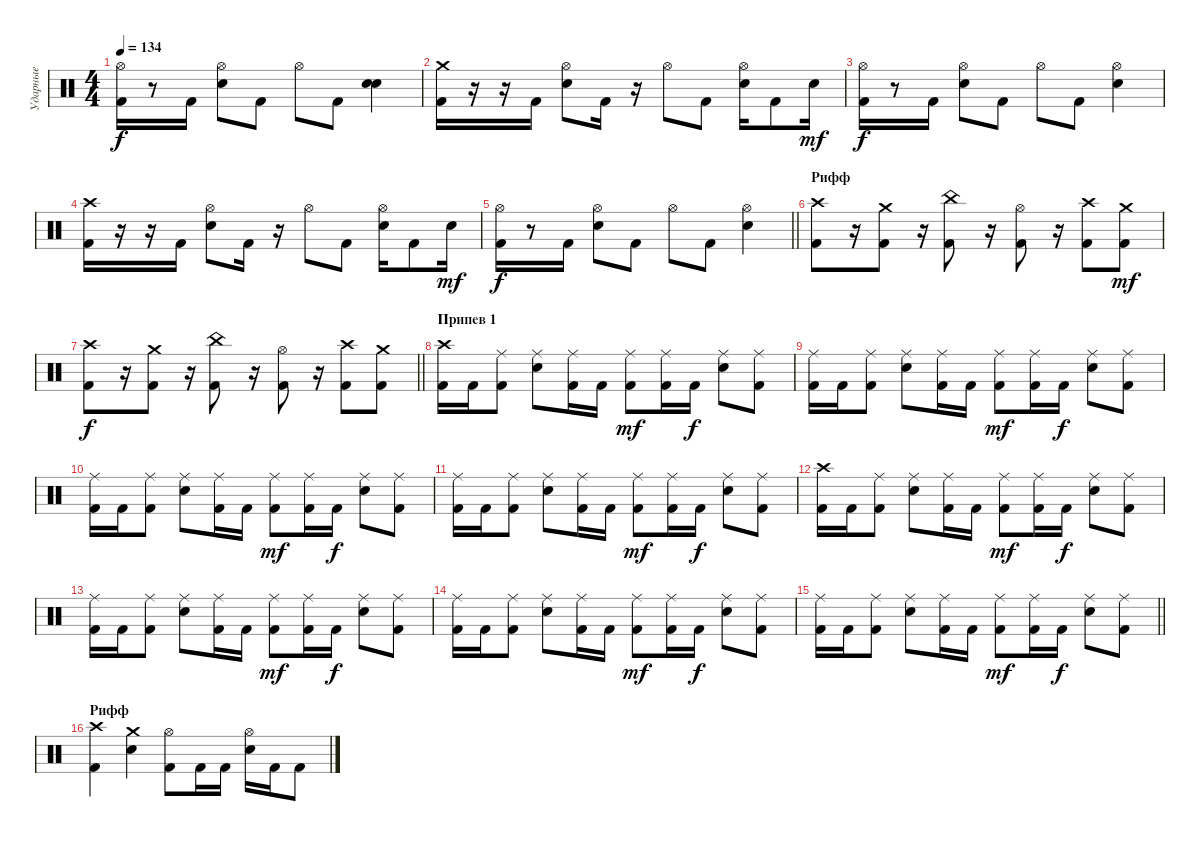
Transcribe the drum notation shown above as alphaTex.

\track ("Ударные" "Ударные") {instrument percussion}
\staff {score}
\articulation defaults
\ts (4 4)
\tempo 134
\clef neutral
\ks c
("Hi-Hat (open)" "Kick (hit) 2").16{dy f} r.8 "Kick (hit) 2".16 ("Hi-Hat (open)" "Snare (hit) 2").8 "Kick (hit) 2".8 "Hi-Hat (open)".8 "Kick (hit) 2".8 ("Snare (hit) 2" "Snare (hit) 2").4 |
("Crash medium (hit)" "Kick (hit) 2").16 r.16 r.16 "Kick (hit) 2".16 ("Hi-Hat (open)" "Snare (hit) 2").8 "Kick (hit) 2".16 r.16 "Hi-Hat (open)".8 "Kick (hit) 2".8 ("Hi-Hat (open)" "Snare (hit) 2").16 "Kick (hit) 2".8 "Snare (hit) 2".16{dy mf} |
("Hi-Hat (open)" "Kick (hit) 2").16{dy f} r.8 "Kick (hit) 2".16 ("Hi-Hat (open)" "Snare (hit) 2").8 "Kick (hit) 2".8 "Hi-Hat (open)".8 "Kick (hit) 2".8 ("Hi-Hat (open)" "Snare (hit) 2").4 |
("Crash high (hit)" "Kick (hit) 2").16 r.16 r.16 "Kick (hit) 2".16 ("Hi-Hat (open)" "Snare (hit) 2").8 "Kick (hit) 2".16 r.16 "Hi-Hat (open)".8 "Kick (hit) 2".8 ("Hi-Hat (open)" "Snare (hit) 2").16 "Kick (hit) 2".8 "Snare (hit) 2".16{dy mf} |
\barLineRight lightlight
("Hi-Hat (open)" "Kick (hit) 2").16{dy f} r.8 "Kick (hit) 2".16 ("Hi-Hat (open)" "Snare (hit) 2").8 "Kick (hit) 2".8 "Hi-Hat (open)".8 "Kick (hit) 2".8 ("Hi-Hat (open)" "Snare (hit) 2").4 |
\section ("" "Рифф")
("Crash high (hit)" "Kick (hit) 2").8 r.16 ("Crash medium (hit)" "Kick (hit) 2").8 r.16 ("China (hit)" "Kick (hit) 2").8 r.16 ("Hi-Hat (open)" "Kick (hit) 2").8 r.16 ("Crash high (hit)" "Kick (hit) 2").8 ("Crash medium (hit)" "Kick (hit) 2").8{dy mf} |
\barLineRight lightlight
("Crash high (hit)" "Kick (hit) 2").8{dy f} r.16 ("Crash medium (hit)" "Kick (hit) 2").8 r.16 ("China (hit)" "Kick (hit) 2").8 r.16 ("Hi-Hat (open)" "Kick (hit) 2").8 r.16 ("Crash high (hit)" "Kick (hit) 2").8 ("Crash medium (hit)" "Kick (hit) 2").8 |
\section ("" "Припев 1")
("Crash high (hit)" "Kick (hit) 2").16 "Kick (hit) 2".16 ("Ride (middle)" "Kick (hit) 2").8 ("Ride (middle)" "Snare (hit) 2").8 ("Ride (middle)" "Kick (hit) 2").16 "Kick (hit) 2".16 ("Ride (middle)" "Kick (hit) 2").8{dy mf} ("Ride (middle)" "Kick (hit) 2").16 "Kick (hit) 2".16{dy f} ("Ride (middle)" "Snare (hit) 2").8 ("Ride (middle)" "Kick (hit) 2").8 |
("Ride (middle)" "Kick (hit) 2").16 "Kick (hit) 2".16 ("Ride (middle)" "Kick (hit) 2").8 ("Ride (middle)" "Snare (hit) 2").8 ("Ride (middle)" "Kick (hit) 2").16 "Kick (hit) 2".16 ("Ride (middle)" "Kick (hit) 2").8{dy mf} ("Ride (middle)" "Kick (hit) 2").16 "Kick (hit) 2".16{dy f} ("Ride (middle)" "Snare (hit) 2").8 ("Ride (middle)" "Kick (hit) 2").8 |
("Ride (middle)" "Kick (hit) 2").16 "Kick (hit) 2".16 ("Ride (middle)" "Kick (hit) 2").8 ("Ride (middle)" "Snare (hit) 2").8 ("Ride (middle)" "Kick (hit) 2").16 "Kick (hit) 2".16 ("Ride (middle)" "Kick (hit) 2").8{dy mf} ("Ride (middle)" "Kick (hit) 2").16 "Kick (hit) 2".16{dy f} ("Ride (middle)" "Snare (hit) 2").8 ("Ride (middle)" "Kick (hit) 2").8 |
("Ride (middle)" "Kick (hit) 2").16 "Kick (hit) 2".16 ("Ride (middle)" "Kick (hit) 2").8 ("Ride (middle)" "Snare (hit) 2").8 ("Ride (middle)" "Kick (hit) 2").16 "Kick (hit) 2".16 ("Ride (middle)" "Kick (hit) 2").8{dy mf} ("Ride (middle)" "Kick (hit) 2").16 "Kick (hit) 2".16{dy f} ("Ride (middle)" "Snare (hit) 2").8 ("Ride (middle)" "Kick (hit) 2").8 |
("Crash high (hit)" "Kick (hit) 2").16 "Kick (hit) 2".16 ("Ride (middle)" "Kick (hit) 2").8 ("Ride (middle)" "Snare (hit) 2").8 ("Ride (middle)" "Kick (hit) 2").16 "Kick (hit) 2".16 ("Ride (middle)" "Kick (hit) 2").8{dy mf} ("Ride (middle)" "Kick (hit) 2").16 "Kick (hit) 2".16{dy f} ("Ride (middle)" "Snare (hit) 2").8 ("Ride (middle)" "Kick (hit) 2").8 |
("Ride (middle)" "Kick (hit) 2").16 "Kick (hit) 2".16 ("Ride (middle)" "Kick (hit) 2").8 ("Ride (middle)" "Snare (hit) 2").8 ("Ride (middle)" "Kick (hit) 2").16 "Kick (hit) 2".16 ("Ride (middle)" "Kick (hit) 2").8{dy mf} ("Ride (middle)" "Kick (hit) 2").16 "Kick (hit) 2".16{dy f} ("Ride (middle)" "Snare (hit) 2").8 ("Ride (middle)" "Kick (hit) 2").8 |
("Ride (middle)" "Kick (hit) 2").16 "Kick (hit) 2".16 ("Ride (middle)" "Kick (hit) 2").8 ("Ride (middle)" "Snare (hit) 2").8 ("Ride (middle)" "Kick (hit) 2").16 "Kick (hit) 2".16 ("Ride (middle)" "Kick (hit) 2").8{dy mf} ("Ride (middle)" "Kick (hit) 2").16 "Kick (hit) 2".16{dy f} ("Ride (middle)" "Snare (hit) 2").8 ("Ride (middle)" "Kick (hit) 2").8 |
\barLineRight lightlight
("Ride (middle)" "Kick (hit) 2").16 "Kick (hit) 2".16 ("Ride (middle)" "Kick (hit) 2").8 ("Ride (middle)" "Snare (hit) 2").8 ("Ride (middle)" "Kick (hit) 2").16 "Kick (hit) 2".16 ("Ride (middle)" "Kick (hit) 2").8{dy mf} ("Ride (middle)" "Kick (hit) 2").16 "Kick (hit) 2".16{dy f} ("Ride (middle)" "Snare (hit) 2").8 ("Ride (middle)" "Kick (hit) 2").8 |
\section ("" "Рифф")
("Crash high (hit)" "Kick (hit) 2").4 ("Crash medium (hit)" "Snare (hit) 2").4 ("Hi-Hat (open)" "Kick (hit) 2").8 "Kick (hit) 2".16 "Kick (hit) 2".16 ("Hi-Hat (open)" "Snare (hit) 2").16 "Kick (hit) 2".16 "Kick (hit) 2".8
